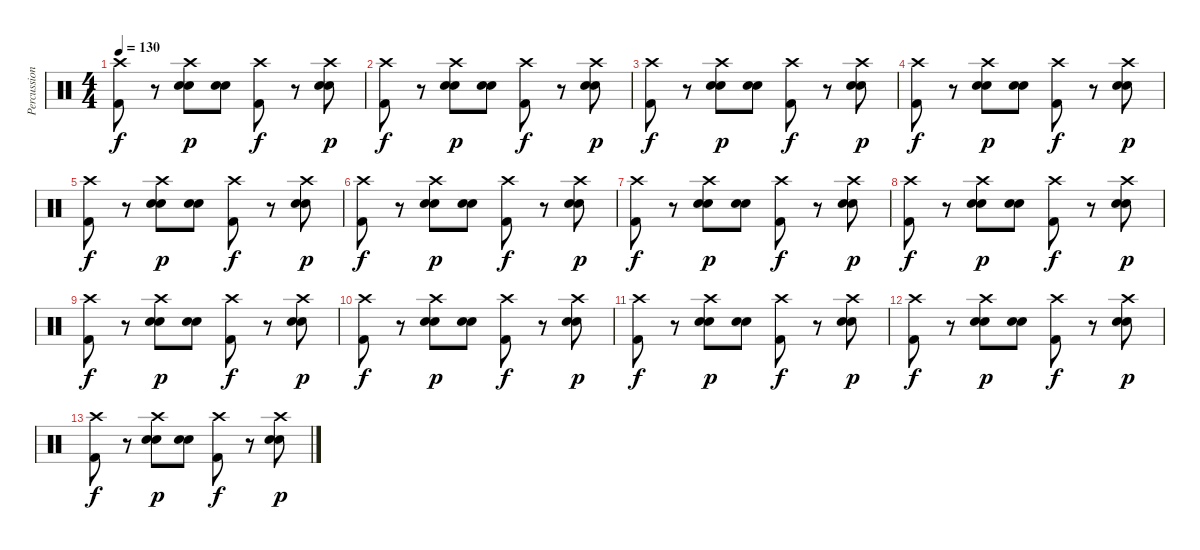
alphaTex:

\track ("Percussion" "Percussion") {instrument percussion}
\staff {score}
\articulation defaults
\ts (4 4)
\tempo 130
\clef neutral
\ks c
("Kick (hit) 2" "Crash high (hit)").8{dy f} r.8 ("Electric Snare (hit)" "Crash high (hit)" "Snare (hit) 2").8{dy p} ("Electric Snare (hit)" "Snare (hit) 2").8 ("Kick (hit) 2" "Crash high (hit)").8{dy f} r.8 ("Electric Snare (hit)" "Crash high (hit)" "Snare (hit) 2").8{dy p} |
("Kick (hit) 2" "Crash high (hit)").8{dy f} r.8 ("Electric Snare (hit)" "Crash high (hit)" "Snare (hit) 2").8{dy p} ("Electric Snare (hit)" "Snare (hit) 2").8 ("Kick (hit) 2" "Crash high (hit)").8{dy f} r.8 ("Electric Snare (hit)" "Crash high (hit)" "Snare (hit) 2").8{dy p} |
("Kick (hit) 2" "Crash high (hit)").8{dy f} r.8 ("Electric Snare (hit)" "Crash high (hit)" "Snare (hit) 2").8{dy p} ("Electric Snare (hit)" "Snare (hit) 2").8 ("Kick (hit) 2" "Crash high (hit)").8{dy f} r.8 ("Electric Snare (hit)" "Crash high (hit)" "Snare (hit) 2").8{dy p} |
("Kick (hit) 2" "Crash high (hit)").8{dy f} r.8 ("Electric Snare (hit)" "Crash high (hit)" "Snare (hit) 2").8{dy p} ("Electric Snare (hit)" "Snare (hit) 2").8 ("Kick (hit) 2" "Crash high (hit)").8{dy f} r.8 ("Electric Snare (hit)" "Crash high (hit)" "Snare (hit) 2").8{dy p} |
("Kick (hit) 2" "Crash high (hit)").8{dy f} r.8 ("Electric Snare (hit)" "Crash high (hit)" "Snare (hit) 2").8{dy p} ("Electric Snare (hit)" "Snare (hit) 2").8 ("Kick (hit) 2" "Crash high (hit)").8{dy f} r.8 ("Electric Snare (hit)" "Crash high (hit)" "Snare (hit) 2").8{dy p} |
("Kick (hit) 2" "Crash high (hit)").8{dy f} r.8 ("Electric Snare (hit)" "Crash high (hit)" "Snare (hit) 2").8{dy p} ("Electric Snare (hit)" "Snare (hit) 2").8 ("Kick (hit) 2" "Crash high (hit)").8{dy f} r.8 ("Electric Snare (hit)" "Crash high (hit)" "Snare (hit) 2").8{dy p} |
("Kick (hit) 2" "Crash high (hit)").8{dy f} r.8 ("Electric Snare (hit)" "Crash high (hit)" "Snare (hit) 2").8{dy p} ("Electric Snare (hit)" "Snare (hit) 2").8 ("Kick (hit) 2" "Crash high (hit)").8{dy f} r.8 ("Electric Snare (hit)" "Crash high (hit)" "Snare (hit) 2").8{dy p} |
("Kick (hit) 2" "Crash high (hit)").8{dy f} r.8 ("Electric Snare (hit)" "Crash high (hit)" "Snare (hit) 2").8{dy p} ("Electric Snare (hit)" "Snare (hit) 2").8 ("Kick (hit) 2" "Crash high (hit)").8{dy f} r.8 ("Electric Snare (hit)" "Crash high (hit)" "Snare (hit) 2").8{dy p} |
("Kick (hit) 2" "Crash high (hit)").8{dy f} r.8 ("Electric Snare (hit)" "Crash high (hit)" "Snare (hit) 2").8{dy p} ("Electric Snare (hit)" "Snare (hit) 2").8 ("Kick (hit) 2" "Crash high (hit)").8{dy f} r.8 ("Electric Snare (hit)" "Crash high (hit)" "Snare (hit) 2").8{dy p} |
("Kick (hit) 2" "Crash high (hit)").8{dy f} r.8 ("Electric Snare (hit)" "Crash high (hit)" "Snare (hit) 2").8{dy p} ("Electric Snare (hit)" "Snare (hit) 2").8 ("Kick (hit) 2" "Crash high (hit)").8{dy f} r.8 ("Electric Snare (hit)" "Crash high (hit)" "Snare (hit) 2").8{dy p} |
("Kick (hit) 2" "Crash high (hit)").8{dy f} r.8 ("Electric Snare (hit)" "Crash high (hit)" "Snare (hit) 2").8{dy p} ("Electric Snare (hit)" "Snare (hit) 2").8 ("Kick (hit) 2" "Crash high (hit)").8{dy f} r.8 ("Electric Snare (hit)" "Crash high (hit)" "Snare (hit) 2").8{dy p} |
("Kick (hit) 2" "Crash high (hit)").8{dy f} r.8 ("Electric Snare (hit)" "Crash high (hit)" "Snare (hit) 2").8{dy p} ("Electric Snare (hit)" "Snare (hit) 2").8 ("Kick (hit) 2" "Crash high (hit)").8{dy f} r.8 ("Electric Snare (hit)" "Crash high (hit)" "Snare (hit) 2").8{dy p} |
("Kick (hit) 2" "Crash high (hit)").8{dy f} r.8 ("Electric Snare (hit)" "Crash high (hit)" "Snare (hit) 2").8{dy p} ("Electric Snare (hit)" "Snare (hit) 2").8 ("Kick (hit) 2" "Crash high (hit)").8{dy f} r.8 ("Electric Snare (hit)" "Crash high (hit)" "Snare (hit) 2").8{dy p}
